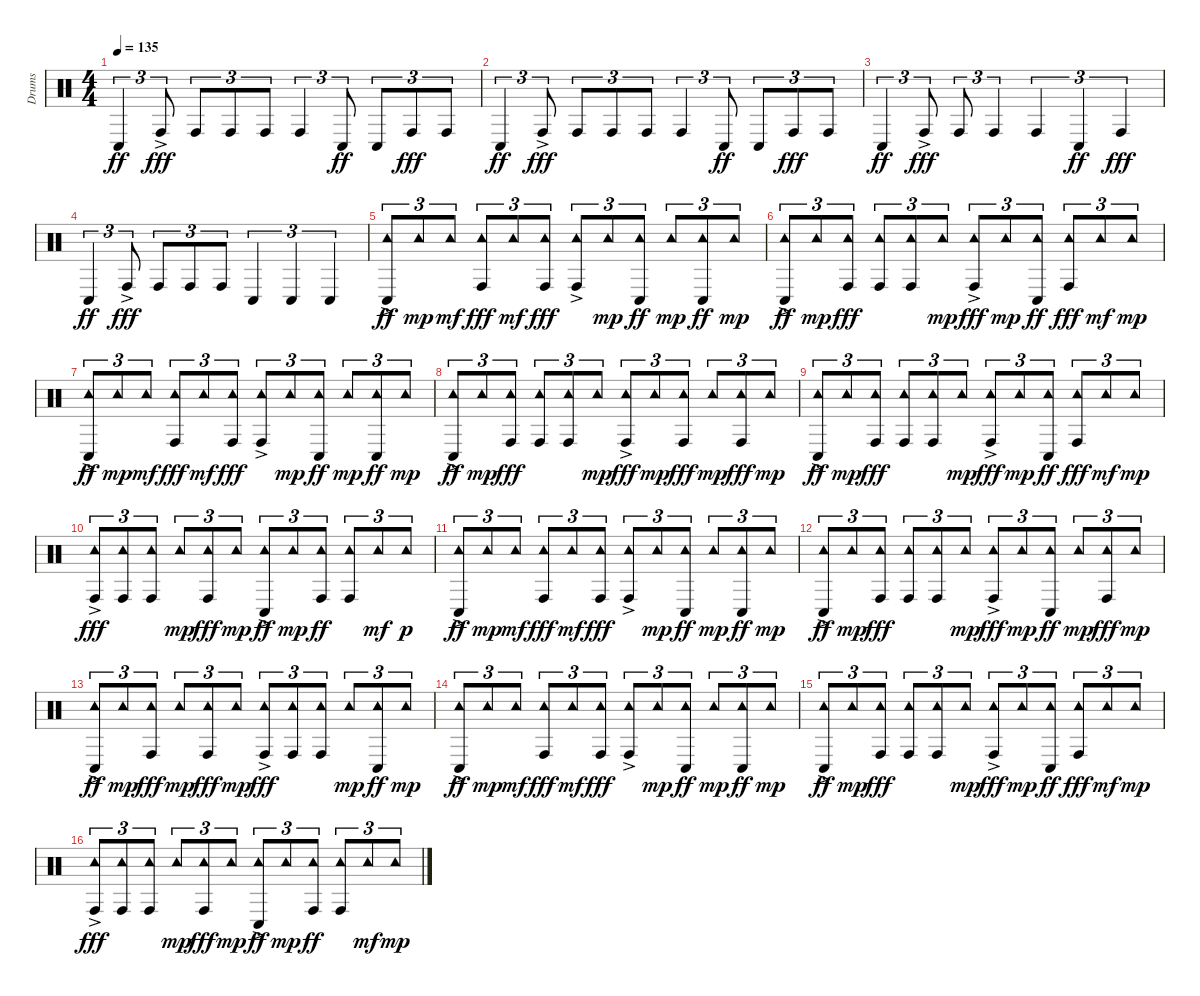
\track ("Drums" "Drums") {instrument percussion}
\staff {score}
\articulation defaults
\ts (4 4)
\tempo 135
\clef neutral
\ks c "Conga low (hit)".4{tu (3 2) dy ff} "Conga high (hit)"{ac}.8{tu (3 2) dy fff} "Conga high (hit)".8{tu (3 2)} "Conga high (hit)".8{tu (3 2)} "Conga high (hit)".8{tu (3 2)} "Conga high (hit)".4{tu (3 2)} "Conga low (hit)".8{tu (3 2) dy ff} "Conga low (hit)".8{tu (3 2)} "Conga high (hit)".8{tu (3 2) dy fff} "Conga high (hit)".8{tu (3 2)}
|
"Conga low (hit)".4{tu (3 2) dy ff} "Conga high (hit)"{ac}.8{tu (3 2) dy fff} "Conga high (hit)".8{tu (3 2)} "Conga high (hit)".8{tu (3 2)} "Conga high (hit)".8{tu (3 2)} "Conga high (hit)".4{tu (3 2)} "Conga low (hit)".8{tu (3 2) dy ff} "Conga low (hit)".8{tu (3 2)} "Conga high (hit)".8{tu (3 2) dy fff} "Conga high (hit)".8{tu (3 2)} |
"Conga low (hit)".4{tu (3 2) dy ff} "Conga high (hit)"{ac}.8{tu (3 2) dy fff} "Conga high (hit)".8{tu (3 2)} "Conga high (hit)".4{tu (3 2)} "Conga high (hit)".4{tu (3 2)} "Conga low (hit)".4{tu (3 2) dy ff} "Conga high (hit)".4{tu (3 2) dy fff} |
"Conga low (hit)".4{tu (3 2) dy ff} "Conga high (hit)"{ac}.8{tu (3 2) dy fff} "Conga high (hit)".8{tu (3 2)} "Conga high (hit)".8{tu (3 2)} "Conga high (hit)".8{tu (3 2)} "Conga low (hit)".4{tu (3 2)} "Conga low (hit)".4{tu (3 2)} "Conga low (hit)".4{tu (3 2)} |
("Tambourine (hit)"{ac} "Conga low (hit)").8{tu (3 2) dy ff} "Tambourine (hit)".8{tu (3 2) dy mp} "Tambourine (hit)".8{tu (3 2) dy mf} ("Tambourine (hit)" "Conga high (hit)").8{tu (3 2) dy fff} "Tambourine (hit)".8{tu (3 2) dy mf} ("Tambourine (hit)" "Conga high (hit)").8{tu (3 2) dy fff} ("Tambourine (hit)"{ac} "Conga high (hit)").8{tu (3 2)} "Tambourine (hit)".8{tu (3 2) dy mp} ("Tambourine (hit)" "Conga low (hit)").8{tu (3 2) dy ff} "Tambourine (hit)".8{tu (3 2) dy mp} ("Tambourine (hit)" "Conga low (hit)").8{tu (3 2) dy ff} "Tambourine (hit)".8{tu (3 2) dy mp} |
("Tambourine (hit)"{ac} "Conga low (hit)").8{tu (3 2) dy ff} "Tambourine (hit)".8{tu (3 2) dy mp} ("Tambourine (hit)" "Conga high (hit)").8{tu (3 2) dy fff} ("Tambourine (hit)" "Conga high (hit)").8{tu (3 2)} ("Tambourine (hit)" "Conga high (hit)").8{tu (3 2)} "Tambourine (hit)".8{tu (3 2) dy mp} ("Tambourine (hit)"{ac} "Conga high (hit)").8{tu (3 2) dy fff} "Tambourine (hit)".8{tu (3 2) dy mp} ("Tambourine (hit)" "Conga low (hit)").8{tu (3 2) dy ff} ("Tambourine (hit)" "Conga high (hit)").8{tu (3 2) dy fff} "Tambourine (hit)".8{tu (3 2) dy mf} "Tambourine (hit)".8{tu (3 2) dy mp} |
("Tambourine (hit)"{ac} "Conga low (hit)").8{tu (3 2) dy ff} "Tambourine (hit)".8{tu (3 2) dy mp} "Tambourine (hit)".8{tu (3 2) dy mf} ("Tambourine (hit)" "Conga high (hit)").8{tu (3 2) dy fff} "Tambourine (hit)".8{tu (3 2) dy mf} ("Tambourine (hit)" "Conga high (hit)").8{tu (3 2) dy fff} ("Tambourine (hit)"{ac} "Conga high (hit)").8{tu (3 2)} "Tambourine (hit)".8{tu (3 2) dy mp} ("Tambourine (hit)" "Conga low (hit)").8{tu (3 2) dy ff} "Tambourine (hit)".8{tu (3 2) dy mp} ("Tambourine (hit)" "Conga low (hit)").8{tu (3 2) dy ff} "Tambourine (hit)".8{tu (3 2) dy mp} |
("Tambourine (hit)"{ac} "Conga low (hit)").8{tu (3 2) dy ff} "Tambourine (hit)".8{tu (3 2) dy mp} ("Tambourine (hit)" "Conga high (hit)").8{tu (3 2) dy fff} ("Tambourine (hit)" "Conga high (hit)").8{tu (3 2)} ("Tambourine (hit)" "Conga high (hit)").8{tu (3 2)} "Tambourine (hit)".8{tu (3 2) dy mp} ("Tambourine (hit)"{ac} "Conga high (hit)").8{tu (3 2) dy fff} "Tambourine (hit)".8{tu (3 2) dy mp} ("Tambourine (hit)" "Conga high (hit)").8{tu (3 2) dy fff} "Tambourine (hit)".8{tu (3 2) dy mp} ("Tambourine (hit)" "Conga high (hit)").8{tu (3 2) dy fff} "Tambourine (hit)".8{tu (3 2) dy mp} |
("Tambourine (hit)"{ac} "Conga low (hit)").8{tu (3 2) dy ff} "Tambourine (hit)".8{tu (3 2) dy mp} ("Tambourine (hit)" "Conga high (hit)").8{tu (3 2) dy fff} ("Tambourine (hit)" "Conga high (hit)").8{tu (3 2)} ("Tambourine (hit)" "Conga high (hit)").8{tu (3 2)} "Tambourine (hit)".8{tu (3 2) dy mp} ("Tambourine (hit)"{ac} "Conga high (hit)").8{tu (3 2) dy fff} "Tambourine (hit)".8{tu (3 2) dy mp} ("Tambourine (hit)" "Conga low (hit)").8{tu (3 2) dy ff} ("Tambourine (hit)" "Conga high (hit)").8{tu (3 2) dy fff} "Tambourine (hit)".8{tu (3 2) dy mf} "Tambourine (hit)".8{tu (3 2) dy mp} |
("Tambourine (hit)"{ac} "Conga high (hit)").8{tu (3 2) dy fff} ("Tambourine (hit)" "Conga high (hit)").8{tu (3 2)} ("Tambourine (hit)" "Conga high (hit)").8{tu (3 2)} "Tambourine (hit)".8{tu (3 2) dy mp} ("Tambourine (hit)" "Conga high (hit)").8{tu (3 2) dy fff} "Tambourine (hit)".8{tu (3 2) dy mp} ("Tambourine (hit)"{ac} "Conga low (hit)").8{tu (3 2) dy ff} "Tambourine (hit)".8{tu (3 2) dy mp} ("Tambourine (hit)" "Conga high (hit)").8{tu (3 2) dy ff} ("Tambourine (hit)" "Conga high (hit)").8{tu (3 2)} "Tambourine (hit)".8{tu (3 2) dy mf} "Tambourine (hit)".8{tu (3 2) dy p} |
("Tambourine (hit)"{ac} "Conga low (hit)").8{tu (3 2) dy ff} "Tambourine (hit)".8{tu (3 2) dy mp} "Tambourine (hit)".8{tu (3 2) dy mf} ("Tambourine (hit)" "Conga high (hit)").8{tu (3 2) dy fff} "Tambourine (hit)".8{tu (3 2) dy mf} ("Tambourine (hit)" "Conga high (hit)").8{tu (3 2) dy fff} ("Tambourine (hit)"{ac} "Conga high (hit)").8{tu (3 2)} "Tambourine (hit)".8{tu (3 2) dy mp} ("Tambourine (hit)" "Conga low (hit)").8{tu (3 2) dy ff} "Tambourine (hit)".8{tu (3 2) dy mp} ("Tambourine (hit)" "Conga low (hit)").8{tu (3 2) dy ff} "Tambourine (hit)".8{tu (3 2) dy mp} |
("Tambourine (hit)"{ac} "Conga low (hit)").8{tu (3 2) dy ff} "Tambourine (hit)".8{tu (3 2) dy mp} ("Tambourine (hit)" "Conga high (hit)").8{tu (3 2) dy fff} ("Tambourine (hit)" "Conga high (hit)").8{tu (3 2)} ("Tambourine (hit)" "Conga high (hit)").8{tu (3 2)} "Tambourine (hit)".8{tu (3 2) dy mp} ("Tambourine (hit)"{ac} "Conga high (hit)").8{tu (3 2) dy fff} "Tambourine (hit)".8{tu (3 2) dy mp} ("Tambourine (hit)" "Conga low (hit)").8{tu (3 2) dy ff} "Tambourine (hit)".8{tu (3 2) dy mp} ("Tambourine (hit)" "Conga high (hit)").8{tu (3 2) dy fff} "Tambourine (hit)".8{tu (3 2) dy mp} |
("Tambourine (hit)"{ac} "Conga low (hit)").8{tu (3 2) dy ff} "Tambourine (hit)".8{tu (3 2) dy mp} ("Tambourine (hit)" "Conga high (hit)").8{tu (3 2) dy fff} "Tambourine (hit)".8{tu (3 2) dy mp} ("Tambourine (hit)" "Conga high (hit)").8{tu (3 2) dy fff} "Tambourine (hit)".8{tu (3 2) dy mp} ("Tambourine (hit)"{ac} "Conga high (hit)").8{tu (3 2) dy fff} ("Tambourine (hit)" "Conga high (hit)").8{tu (3 2)} ("Tambourine (hit)" "Conga high (hit)").8{tu (3 2)} "Tambourine (hit)".8{tu (3 2) dy mp} ("Tambourine (hit)" "Conga low (hit)").8{tu (3 2) dy ff} "Tambourine (hit)".8{tu (3 2) dy mp} |
("Tambourine (hit)"{ac} "Conga low (hit)").8{tu (3 2) dy ff} "Tambourine (hit)".8{tu (3 2) dy mp} "Tambourine (hit)".8{tu (3 2) dy mf} ("Tambourine (hit)" "Conga high (hit)").8{tu (3 2) dy fff} "Tambourine (hit)".8{tu (3 2) dy mf} ("Tambourine (hit)" "Conga high (hit)").8{tu (3 2) dy fff} ("Tambourine (hit)"{ac} "Conga high (hit)").8{tu (3 2)} "Tambourine (hit)".8{tu (3 2) dy mp} ("Tambourine (hit)" "Conga low (hit)").8{tu (3 2) dy ff} "Tambourine (hit)".8{tu (3 2) dy mp} ("Tambourine (hit)" "Conga low (hit)").8{tu (3 2) dy ff} "Tambourine (hit)".8{tu (3 2) dy mp} |
("Tambourine (hit)"{ac} "Conga low (hit)").8{tu (3 2) dy ff} "Tambourine (hit)".8{tu (3 2) dy mp} ("Tambourine (hit)" "Conga high (hit)").8{tu (3 2) dy fff} ("Tambourine (hit)" "Conga high (hit)").8{tu (3 2)} ("Tambourine (hit)" "Conga high (hit)").8{tu (3 2)} "Tambourine (hit)".8{tu (3 2) dy mp} ("Tambourine (hit)"{ac} "Conga high (hit)").8{tu (3 2) dy fff} "Tambourine (hit)".8{tu (3 2) dy mp} ("Tambourine (hit)" "Conga low (hit)").8{tu (3 2) dy ff} ("Tambourine (hit)" "Conga high (hit)").8{tu (3 2) dy fff} "Tambourine (hit)".8{tu (3 2) dy mf} "Tambourine (hit)".8{tu (3 2) dy mp} |
("Tambourine (hit)"{ac} "Conga high (hit)").8{tu (3 2) dy fff} ("Tambourine (hit)" "Conga high (hit)").8{tu (3 2)} ("Tambourine (hit)" "Conga high (hit)").8{tu (3 2)} "Tambourine (hit)".8{tu (3 2) dy mp} ("Tambourine (hit)" "Conga high (hit)").8{tu (3 2) dy fff} "Tambourine (hit)".8{tu (3 2) dy mp} ("Tambourine (hit)"{ac} "Conga low (hit)").8{tu (3 2) dy ff} "Tambourine (hit)".8{tu (3 2) dy mp} ("Tambourine (hit)" "Conga high (hit)").8{tu (3 2) dy ff} ("Tambourine (hit)" "Conga high (hit)").8{tu (3 2)} "Tambourine (hit)".8{tu (3 2) dy mf} "Tambourine (hit)".8{tu (3 2) dy mp}
